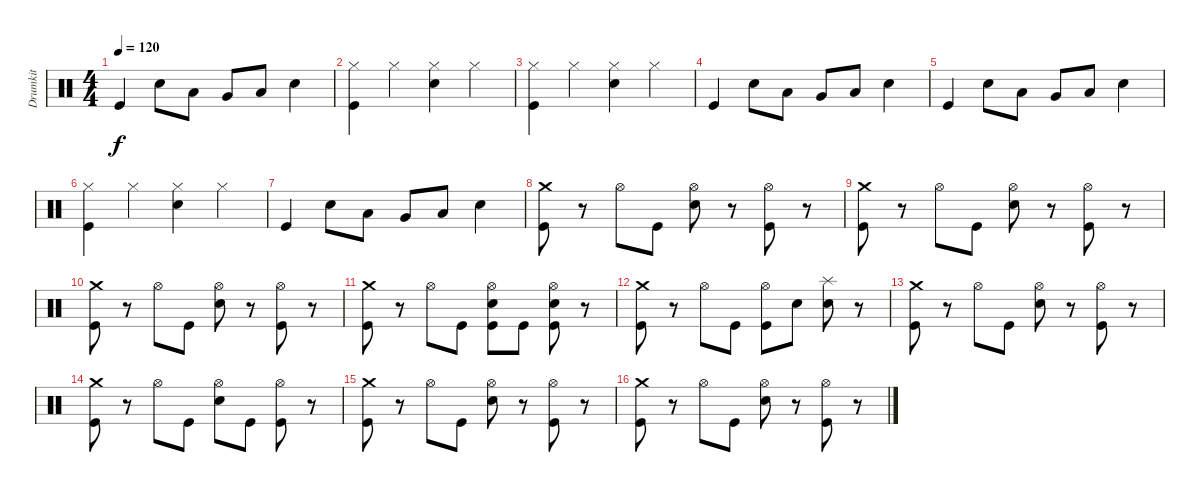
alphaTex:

\track ("Drumkit" "Drumkit") {instrument percussion}
\staff {score}
\articulation defaults
\ts (4 4)
\tempo 120
\clef neutral
\ks c "Kick (hit)".4{dy f} "Snare (hit) 2".8 "Low Tom (hit)".8 "Very Low Tom (hit)".8 "Low Floor Tom (hit)".8 "Snare (hit) 2".4
|
("Kick (hit)" "Hi-Hat (closed)").4 "Hi-Hat (closed)".4 ("Snare (hit) 2" "Hi-Hat (closed)").4 "Hi-Hat (closed)".4 |
("Kick (hit)" "Hi-Hat (closed)").4 "Hi-Hat (closed)".4 ("Snare (hit) 2" "Hi-Hat (closed)").4 "Hi-Hat (closed)".4 |
"Kick (hit)".4 "Snare (hit) 2".8 "Low Tom (hit)".8 "Very Low Tom (hit)".8 "Low Floor Tom (hit)".8 "Snare (hit) 2".4 |
"Kick (hit)".4 "Snare (hit) 2".8 "Low Tom (hit)".8 "Very Low Tom (hit)".8 "Low Floor Tom (hit)".8 "Snare (hit) 2".4 |
("Kick (hit)" "Hi-Hat (closed)").4 "Hi-Hat (closed)".4 ("Snare (hit) 2" "Hi-Hat (closed)").4 "Hi-Hat (closed)".4 |
"Kick (hit)".4 "Snare (hit) 2".8 "Low Tom (hit)".8 "Very Low Tom (hit)".8 "Low Floor Tom (hit)".8 "Snare (hit) 2".4 |
("Crash medium (hit)" "Kick (hit)").8 r.8 "Hi-Hat (open)".8 "Kick (hit)".8 ("Hi-Hat (open)" "Snare (hit) 2").8 r.8 ("Hi-Hat (open)" "Kick (hit)").8 r.8 |
("Crash medium (hit)" "Kick (hit)").8 r.8 "Hi-Hat (open)".8 "Kick (hit)".8 ("Hi-Hat (open)" "Snare (hit) 2").8 r.8 ("Hi-Hat (open)" "Kick (hit)").8 r.8 |
("Crash medium (hit)" "Kick (hit)").8 r.8 "Hi-Hat (open)".8 "Kick (hit)".8 ("Hi-Hat (open)" "Snare (hit) 2").8 r.8 ("Hi-Hat (open)" "Kick (hit)").8 r.8 |
("Crash medium (hit)" "Kick (hit)").8 r.8 "Hi-Hat (open)".8 "Kick (hit)".8 ("Hi-Hat (open)" "Snare (hit) 2" "Kick (hit)").8 "Kick (hit)".8 ("Hi-Hat (open)" "Snare (hit) 2" "Kick (hit)").8 r.8 |
("Crash medium (hit)" "Kick (hit)").8 r.8 "Hi-Hat (open)".8 "Kick (hit)".8 ("Hi-Hat (open)" "Kick (hit)").8 "Snare (hit) 2".8 ("Snare (hit) 2" "Splash (hit)").8 r.8 |
("Crash medium (hit)" "Kick (hit)").8 r.8 "Hi-Hat (open)".8 "Kick (hit)".8 ("Hi-Hat (open)" "Snare (hit) 2").8 r.8 ("Hi-Hat (open)" "Kick (hit)").8 r.8 |
("Crash medium (hit)" "Kick (hit)").8 r.8 "Hi-Hat (open)".8 "Kick (hit)".8 ("Hi-Hat (open)" "Snare (hit) 2").8 "Kick (hit)".8 ("Hi-Hat (open)" "Kick (hit)").8 r.8 |
("Crash medium (hit)" "Kick (hit)").8 r.8 "Hi-Hat (open)".8 "Kick (hit)".8 ("Hi-Hat (open)" "Snare (hit) 2").8 r.8 ("Hi-Hat (open)" "Kick (hit)").8 r.8 |
("Crash medium (hit)" "Kick (hit)").8 r.8 "Hi-Hat (open)".8 "Kick (hit)".8 ("Hi-Hat (open)" "Snare (hit) 2").8 r.8 ("Hi-Hat (open)" "Kick (hit)").8 r.8
